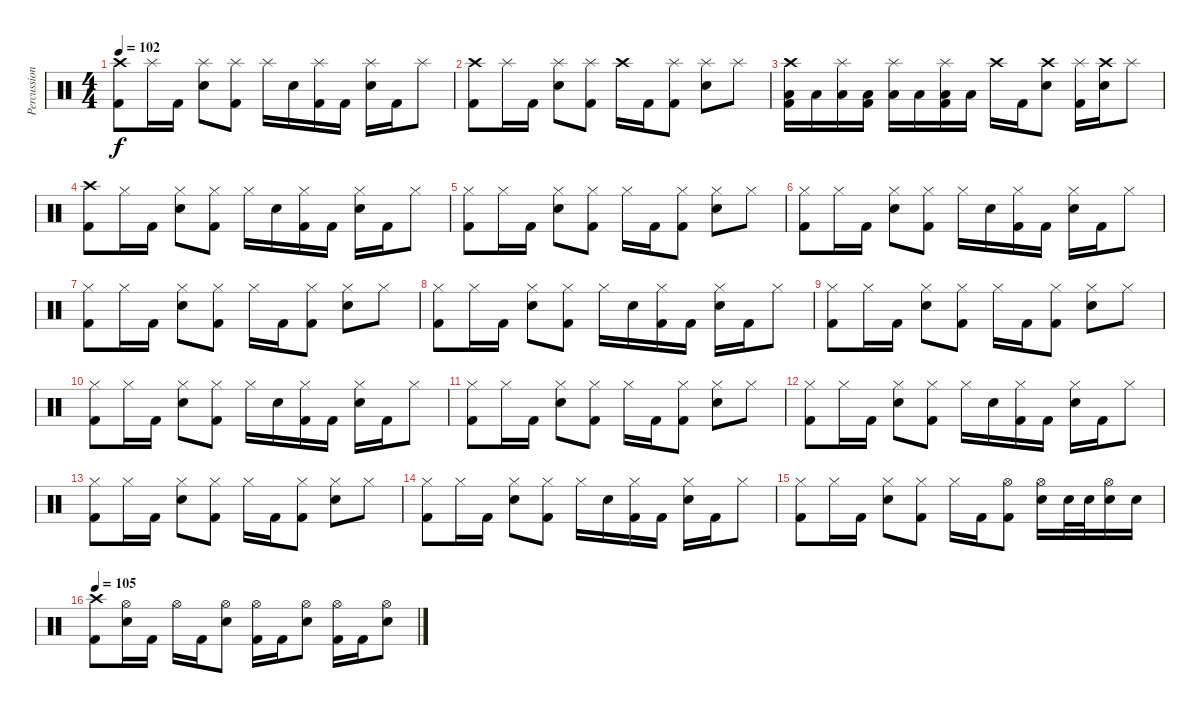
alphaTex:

\track ("Percussions" "Percussion") {instrument percussion}
\staff {score}
\articulation defaults
\ts (4 4)
\tempo 102
\clef neutral
\ks c
("Crash high (hit)" "Kick (hit) 2").8{dy f} "Splash (hit)".16 "Kick (hit) 2".16 ("Splash (hit)" "Electric Snare (hit)").8 ("Splash (hit)" "Kick (hit) 2").8 "Splash (hit)".16 "Electric Snare (hit)".16 ("Splash (hit)" "Kick (hit) 2").16 "Kick (hit) 2".16 ("Splash (hit)" "Electric Snare (hit)").16 "Kick (hit) 2".16 "Splash (hit)".8 |
("Crash high (hit)" "Kick (hit) 2").8 "Splash (hit)".16 "Kick (hit) 2".16 ("Splash (hit)" "Electric Snare (hit)").8 ("Splash (hit)" "Kick (hit) 2").8 "Crash high (hit)".16 "Kick (hit) 2".16 ("Splash (hit)" "Kick (hit) 2").8 ("Splash (hit)" "Electric Snare (hit)").8 "Splash (hit)".8 |
("Crash high (hit)" "Low Floor Tom (hit)" "Kick (hit) 2").16 "Low Floor Tom (hit)".16 ("Splash (hit)" "Low Floor Tom (hit)").16 ("Low Floor Tom (hit)" "Kick (hit) 2").16 ("Splash (hit)" "Low Floor Tom (hit)").16 "Low Floor Tom (hit)".16 ("Splash (hit)" "Low Floor Tom (hit)" "Kick (hit) 2").16 "Low Floor Tom (hit)".16 "Crash high (hit)".16 "Kick (hit) 2".16 ("Crash high (hit)" "Electric Snare (hit)").8 ("Splash (hit)" "Kick (hit) 2").16 ("Crash high (hit)" "Electric Snare (hit)").16 "Splash (hit)".8 |
("Crash high (hit)" "Kick (hit) 2").8 "Hi-Hat (closed)".16 "Kick (hit) 2".16 ("Hi-Hat (closed)" "Electric Snare (hit)").8 ("Hi-Hat (closed)" "Kick (hit) 2").8 "Hi-Hat (closed)".16 "Electric Snare (hit)".16 ("Hi-Hat (closed)" "Kick (hit) 2").16 "Kick (hit) 2".16 ("Hi-Hat (closed)" "Electric Snare (hit)").16 "Kick (hit) 2".16 "Hi-Hat (closed)".8 |
("Hi-Hat (closed)" "Kick (hit) 2").8 "Hi-Hat (closed)".16 "Kick (hit) 2".16 ("Hi-Hat (closed)" "Electric Snare (hit)").8 ("Hi-Hat (closed)" "Kick (hit) 2").8 "Hi-Hat (closed)".16 "Kick (hit) 2".16 ("Hi-Hat (closed)" "Kick (hit) 2").8 ("Hi-Hat (closed)" "Electric Snare (hit)").8 "Hi-Hat (closed)".8 |
("Hi-Hat (closed)" "Kick (hit) 2").8 "Hi-Hat (closed)".16 "Kick (hit) 2".16 ("Hi-Hat (closed)" "Electric Snare (hit)").8 ("Hi-Hat (closed)" "Kick (hit) 2").8 "Hi-Hat (closed)".16 "Electric Snare (hit)".16 ("Hi-Hat (closed)" "Kick (hit) 2").16 "Kick (hit) 2".16 ("Hi-Hat (closed)" "Electric Snare (hit)").16 "Kick (hit) 2".16 "Hi-Hat (closed)".8 |
("Hi-Hat (closed)" "Kick (hit) 2").8 "Hi-Hat (closed)".16 "Kick (hit) 2".16 ("Hi-Hat (closed)" "Electric Snare (hit)").8 ("Hi-Hat (closed)" "Kick (hit) 2").8 "Hi-Hat (closed)".16 "Kick (hit) 2".16 ("Hi-Hat (closed)" "Kick (hit) 2").8 ("Hi-Hat (closed)" "Electric Snare (hit)").8 "Hi-Hat (closed)".8 |
("Hi-Hat (closed)" "Kick (hit) 2").8 "Hi-Hat (closed)".16 "Kick (hit) 2".16 ("Hi-Hat (closed)" "Electric Snare (hit)").8 ("Hi-Hat (closed)" "Kick (hit) 2").8 "Hi-Hat (closed)".16 "Electric Snare (hit)".16 ("Hi-Hat (closed)" "Kick (hit) 2").16 "Kick (hit) 2".16 ("Hi-Hat (closed)" "Electric Snare (hit)").16 "Kick (hit) 2".16 "Hi-Hat (closed)".8 |
("Hi-Hat (closed)" "Kick (hit) 2").8 "Hi-Hat (closed)".16 "Kick (hit) 2".16 ("Hi-Hat (closed)" "Electric Snare (hit)").8 ("Hi-Hat (closed)" "Kick (hit) 2").8 "Hi-Hat (closed)".16 "Kick (hit) 2".16 ("Hi-Hat (closed)" "Kick (hit) 2").8 ("Hi-Hat (closed)" "Electric Snare (hit)").8 "Hi-Hat (closed)".8 |
("Hi-Hat (closed)" "Kick (hit) 2").8 "Hi-Hat (closed)".16 "Kick (hit) 2".16 ("Hi-Hat (closed)" "Electric Snare (hit)").8 ("Hi-Hat (closed)" "Kick (hit) 2").8 "Hi-Hat (closed)".16 "Electric Snare (hit)".16 ("Hi-Hat (closed)" "Kick (hit) 2").16 "Kick (hit) 2".16 ("Hi-Hat (closed)" "Electric Snare (hit)").16 "Kick (hit) 2".16 "Hi-Hat (closed)".8 |
("Hi-Hat (closed)" "Kick (hit) 2").8 "Hi-Hat (closed)".16 "Kick (hit) 2".16 ("Hi-Hat (closed)" "Electric Snare (hit)").8 ("Hi-Hat (closed)" "Kick (hit) 2").8 "Hi-Hat (closed)".16 "Kick (hit) 2".16 ("Hi-Hat (closed)" "Kick (hit) 2").8 ("Hi-Hat (closed)" "Electric Snare (hit)").8 "Hi-Hat (closed)".8 |
("Hi-Hat (closed)" "Kick (hit) 2").8 "Hi-Hat (closed)".16 "Kick (hit) 2".16 ("Hi-Hat (closed)" "Electric Snare (hit)").8 ("Hi-Hat (closed)" "Kick (hit) 2").8 "Hi-Hat (closed)".16 "Electric Snare (hit)".16 ("Hi-Hat (closed)" "Kick (hit) 2").16 "Kick (hit) 2".16 ("Hi-Hat (closed)" "Electric Snare (hit)").16 "Kick (hit) 2".16 "Hi-Hat (closed)".8 |
("Hi-Hat (closed)" "Kick (hit) 2").8 "Hi-Hat (closed)".16 "Kick (hit) 2".16 ("Hi-Hat (closed)" "Electric Snare (hit)").8 ("Hi-Hat (closed)" "Kick (hit) 2").8 "Hi-Hat (closed)".16 "Kick (hit) 2".16 ("Hi-Hat (closed)" "Kick (hit) 2").8 ("Hi-Hat (closed)" "Electric Snare (hit)").8 "Hi-Hat (closed)".8 |
("Hi-Hat (closed)" "Kick (hit) 2").8 "Hi-Hat (closed)".16 "Kick (hit) 2".16 ("Hi-Hat (closed)" "Electric Snare (hit)").8 ("Hi-Hat (closed)" "Kick (hit) 2").8 "Hi-Hat (closed)".16 "Electric Snare (hit)".16 ("Hi-Hat (closed)" "Kick (hit) 2").16 "Kick (hit) 2".16 ("Hi-Hat (closed)" "Electric Snare (hit)").16 "Kick (hit) 2".16 "Hi-Hat (closed)".8 |
("Hi-Hat (closed)" "Kick (hit) 2").8 "Hi-Hat (closed)".16 "Kick (hit) 2".16 ("Hi-Hat (closed)" "Electric Snare (hit)").8 ("Hi-Hat (closed)" "Kick (hit) 2").8 "Hi-Hat (closed)".16 "Kick (hit) 2".16 ("Hi-Hat (open)" "Kick (hit) 2").8 ("Hi-Hat (open)" "Electric Snare (hit)").16 "Electric Snare (hit)".32 "Electric Snare (hit)".32 ("Hi-Hat (open)" "Electric Snare (hit)").16 "Electric Snare (hit)".16 |
\tempo 105
("Crash high (hit)" "Kick (hit) 2").8 ("Hi-Hat (open)" "Electric Snare (hit)").16 "Kick (hit) 2".16 "Hi-Hat (open)".16 "Kick (hit) 2".16 ("Hi-Hat (open)" "Electric Snare (hit)").8 ("Hi-Hat (open)" "Kick (hit) 2").16 "Kick (hit) 2".16 ("Hi-Hat (open)" "Electric Snare (hit)").8 ("Hi-Hat (open)" "Kick (hit) 2").16 "Kick (hit) 2".16 ("Hi-Hat (open)" "Electric Snare (hit)").8
